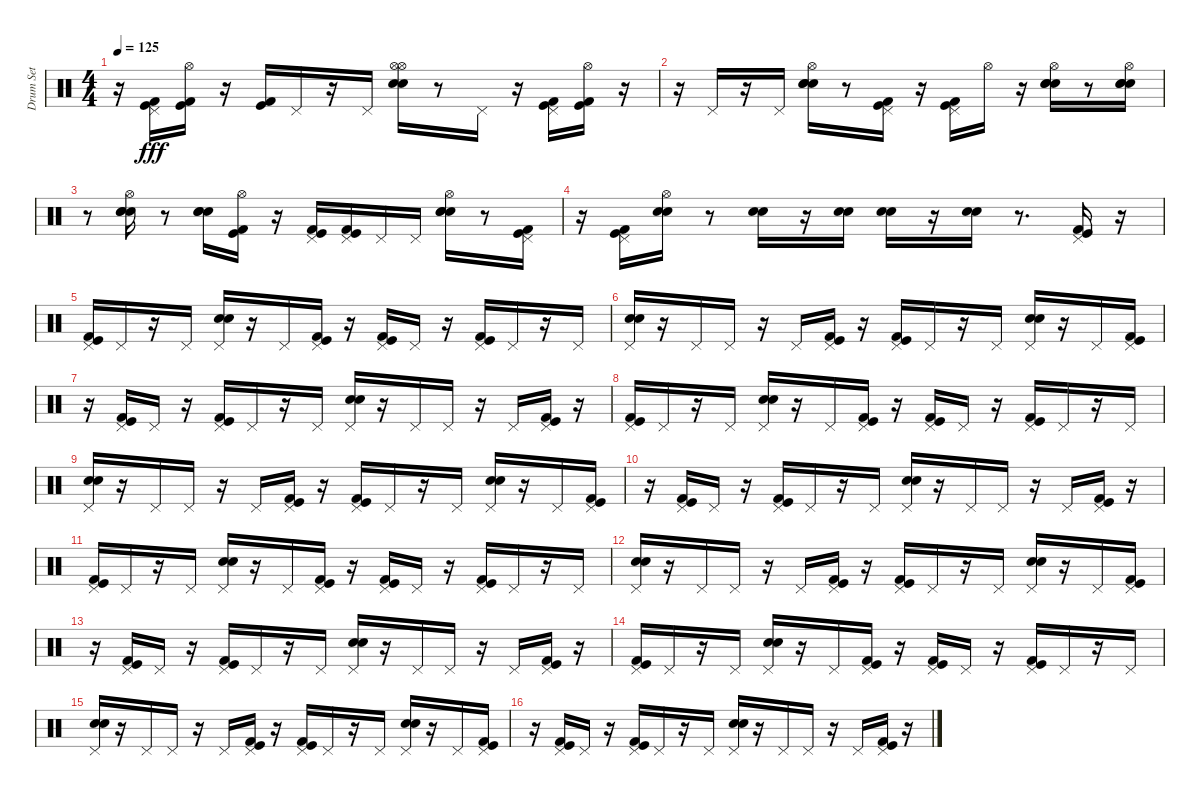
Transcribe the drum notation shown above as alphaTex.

\track ("Drum Set" "Drum Set") {instrument percussion}
\staff {score}
\articulation defaults
\ts (4 4)
\tempo 125
\clef neutral
\ks c
r.16{dy fff} ("Pedal Hi-Hat (hit)" "Kick (hit)" "Kick (hit) 2").16 ("Hi-Hat (open)" "Kick (hit) 2" "Kick (hit)").16 r.16 ("Kick (hit) 2" "Kick (hit)").16 "Pedal Hi-Hat (hit)".16 r.16 "Pedal Hi-Hat (hit)".16 ("Hi-Hat (open)" "Snare (hit) 2" "Electric Snare (hit)" "Hi-Hat (open)").16 r.8 "Pedal Hi-Hat (hit)".16 r.16 ("Kick (hit) 2" "Kick (hit)" "Pedal Hi-Hat (hit)").16 ("Hi-Hat (open)" "Kick (hit) 2" "Kick (hit)").16 r.16 |
r.16 "Pedal Hi-Hat (hit)".16 r.16 "Pedal Hi-Hat (hit)".16 ("Hi-Hat (open)" "Electric Snare (hit)" "Hand Clap (hit)" "Snare (hit) 2").16 r.8 ("Kick (hit) 2" "Kick (hit)" "Pedal Hi-Hat (hit)").16 r.16 ("Pedal Hi-Hat (hit)" "Kick (hit)" "Kick (hit) 2").16 "Hi-Hat (open)".16 r.16 ("Hi-Hat (open)" "Electric Snare (hit)" "Hand Clap (hit)" "Snare (hit) 2").16 r.8 ("Hi-Hat (open)" "Snare (hit) 2" "Hand Clap (hit)" "Electric Snare (hit)").16 |
r.8 ("Hi-Hat (open)" "Electric Snare (hit)" "Hand Clap (hit)" "Snare (hit) 2").16 r.8 ("Snare (hit) 2" "Hand Clap (hit)" "Electric Snare (hit)").16 ("Hi-Hat (open)" "Kick (hit)" "Kick (hit) 2").16 r.16 ("Pedal Hi-Hat (hit)" "Kick (hit)" "Kick (hit) 2").16 ("Pedal Hi-Hat (hit)" "Kick (hit) 2" "Kick (hit)").16 "Pedal Hi-Hat (hit)".16 "Pedal Hi-Hat (hit)".16 ("Hi-Hat (open)" "Electric Snare (hit)" "Hand Clap (hit)" "Snare (hit) 2").16 r.8 ("Kick (hit) 2" "Kick (hit)" "Pedal Hi-Hat (hit)").16 |
r.16 ("Kick (hit)" "Kick (hit) 2" "Pedal Hi-Hat (hit)").16 ("Electric Snare (hit)" "Snare (hit) 2" "Hi-Hat (open)").16 r.8 ("Snare (hit) 2" "Electric Snare (hit)").16 r.16 ("Snare (hit) 2" "Electric Snare (hit)").16 ("Electric Snare (hit)" "Snare (hit) 2").16 r.16 ("Electric Snare (hit)" "Snare (hit) 2").16 r.8{d} ("Pedal Hi-Hat (hit)" "Kick (hit) 2" "Kick (hit)").16 r.16 |
("Kick (hit)" "Kick (hit) 2" "Pedal Hi-Hat (hit)").16 "Pedal Hi-Hat (hit)".16 r.16 "Pedal Hi-Hat (hit)".16 ("Electric Snare (hit)" "Snare (hit) 2" "Pedal Hi-Hat (hit)").16 r.16 "Pedal Hi-Hat (hit)".16 ("Kick (hit)" "Kick (hit) 2" "Pedal Hi-Hat (hit)").16 r.16 ("Pedal Hi-Hat (hit)" "Kick (hit) 2" "Kick (hit)").16 "Pedal Hi-Hat (hit)".16 r.16 ("Kick (hit)" "Kick (hit) 2" "Pedal Hi-Hat (hit)").16 "Pedal Hi-Hat (hit)".16 r.16 "Pedal Hi-Hat (hit)".16 |
("Snare (hit) 2" "Electric Snare (hit)" "Pedal Hi-Hat (hit)").16 r.16 "Pedal Hi-Hat (hit)".16 "Pedal Hi-Hat (hit)".16 r.16 "Pedal Hi-Hat (hit)".16 ("Pedal Hi-Hat (hit)" "Kick (hit) 2" "Kick (hit)").16 r.16 ("Kick (hit)" "Kick (hit) 2" "Pedal Hi-Hat (hit)").16 "Pedal Hi-Hat (hit)".16 r.16 "Pedal Hi-Hat (hit)".16 ("Electric Snare (hit)" "Snare (hit) 2" "Pedal Hi-Hat (hit)").16 r.16 "Pedal Hi-Hat (hit)".16 ("Kick (hit)" "Kick (hit) 2" "Pedal Hi-Hat (hit)").16 |
r.16 ("Kick (hit) 2" "Kick (hit)" "Pedal Hi-Hat (hit)").16 "Pedal Hi-Hat (hit)".16 r.16 ("Kick (hit)" "Kick (hit) 2" "Pedal Hi-Hat (hit)").16 "Pedal Hi-Hat (hit)".16 r.16 "Pedal Hi-Hat (hit)".16 ("Snare (hit) 2" "Electric Snare (hit)" "Pedal Hi-Hat (hit)").16 r.16 "Pedal Hi-Hat (hit)".16 "Pedal Hi-Hat (hit)".16 r.16 "Pedal Hi-Hat (hit)".16 ("Pedal Hi-Hat (hit)" "Kick (hit) 2" "Kick (hit)").16 r.16 |
("Kick (hit)" "Kick (hit) 2" "Pedal Hi-Hat (hit)").16 "Pedal Hi-Hat (hit)".16 r.16 "Pedal Hi-Hat (hit)".16 ("Electric Snare (hit)" "Snare (hit) 2" "Pedal Hi-Hat (hit)").16 r.16 "Pedal Hi-Hat (hit)".16 ("Kick (hit)" "Kick (hit) 2" "Pedal Hi-Hat (hit)").16 r.16 ("Kick (hit) 2" "Kick (hit)" "Pedal Hi-Hat (hit)").16 "Pedal Hi-Hat (hit)".16 r.16 ("Kick (hit)" "Kick (hit) 2" "Pedal Hi-Hat (hit)").16 "Pedal Hi-Hat (hit)".16 r.16 "Pedal Hi-Hat (hit)".16 |
("Snare (hit) 2" "Electric Snare (hit)" "Pedal Hi-Hat (hit)").16 r.16 "Pedal Hi-Hat (hit)".16 "Pedal Hi-Hat (hit)".16 r.16 "Pedal Hi-Hat (hit)".16 ("Pedal Hi-Hat (hit)" "Kick (hit) 2" "Kick (hit)").16 r.16 ("Kick (hit)" "Kick (hit) 2" "Pedal Hi-Hat (hit)").16 "Pedal Hi-Hat (hit)".16 r.16 "Pedal Hi-Hat (hit)".16 ("Electric Snare (hit)" "Snare (hit) 2" "Pedal Hi-Hat (hit)").16 r.16 "Pedal Hi-Hat (hit)".16 ("Kick (hit)" "Kick (hit) 2" "Pedal Hi-Hat (hit)").16 |
r.16 ("Kick (hit) 2" "Kick (hit)" "Pedal Hi-Hat (hit)").16 "Pedal Hi-Hat (hit)".16 r.16 ("Kick (hit)" "Kick (hit) 2" "Pedal Hi-Hat (hit)").16 "Pedal Hi-Hat (hit)".16 r.16 "Pedal Hi-Hat (hit)".16 ("Snare (hit) 2" "Electric Snare (hit)" "Pedal Hi-Hat (hit)").16 r.16 "Pedal Hi-Hat (hit)".16 "Pedal Hi-Hat (hit)".16 r.16 "Pedal Hi-Hat (hit)".16 ("Pedal Hi-Hat (hit)" "Kick (hit) 2" "Kick (hit)").16 r.16 |
("Kick (hit)" "Kick (hit) 2" "Pedal Hi-Hat (hit)").16 "Pedal Hi-Hat (hit)".16 r.16 "Pedal Hi-Hat (hit)".16 ("Electric Snare (hit)" "Snare (hit) 2" "Pedal Hi-Hat (hit)").16 r.16 "Pedal Hi-Hat (hit)".16 ("Kick (hit)" "Kick (hit) 2" "Pedal Hi-Hat (hit)").16 r.16 ("Kick (hit) 2" "Kick (hit)" "Pedal Hi-Hat (hit)").16 "Pedal Hi-Hat (hit)".16 r.16 ("Kick (hit)" "Kick (hit) 2" "Pedal Hi-Hat (hit)").16 "Pedal Hi-Hat (hit)".16 r.16 "Pedal Hi-Hat (hit)".16 |
("Snare (hit) 2" "Electric Snare (hit)" "Pedal Hi-Hat (hit)").16 r.16 "Pedal Hi-Hat (hit)".16 "Pedal Hi-Hat (hit)".16 r.16 "Pedal Hi-Hat (hit)".16 ("Pedal Hi-Hat (hit)" "Kick (hit) 2" "Kick (hit)").16 r.16 ("Kick (hit)" "Kick (hit) 2" "Pedal Hi-Hat (hit)").16 "Pedal Hi-Hat (hit)".16 r.16 "Pedal Hi-Hat (hit)".16 ("Electric Snare (hit)" "Snare (hit) 2" "Pedal Hi-Hat (hit)").16 r.16 "Pedal Hi-Hat (hit)".16 ("Kick (hit)" "Kick (hit) 2" "Pedal Hi-Hat (hit)").16 |
r.16 ("Kick (hit) 2" "Kick (hit)" "Pedal Hi-Hat (hit)").16 "Pedal Hi-Hat (hit)".16 r.16 ("Kick (hit)" "Kick (hit) 2" "Pedal Hi-Hat (hit)").16 "Pedal Hi-Hat (hit)".16 r.16 "Pedal Hi-Hat (hit)".16 ("Snare (hit) 2" "Electric Snare (hit)" "Pedal Hi-Hat (hit)").16 r.16 "Pedal Hi-Hat (hit)".16 "Pedal Hi-Hat (hit)".16 r.16 "Pedal Hi-Hat (hit)".16 ("Pedal Hi-Hat (hit)" "Kick (hit) 2" "Kick (hit)").16 r.16 |
("Kick (hit)" "Kick (hit) 2" "Pedal Hi-Hat (hit)").16 "Pedal Hi-Hat (hit)".16 r.16 "Pedal Hi-Hat (hit)".16 ("Electric Snare (hit)" "Snare (hit) 2" "Pedal Hi-Hat (hit)").16 r.16 "Pedal Hi-Hat (hit)".16 ("Kick (hit)" "Kick (hit) 2" "Pedal Hi-Hat (hit)").16 r.16 ("Kick (hit) 2" "Kick (hit)" "Pedal Hi-Hat (hit)").16 "Pedal Hi-Hat (hit)".16 r.16 ("Kick (hit)" "Kick (hit) 2" "Pedal Hi-Hat (hit)").16 "Pedal Hi-Hat (hit)".16 r.16 "Pedal Hi-Hat (hit)".16 |
("Snare (hit) 2" "Electric Snare (hit)" "Pedal Hi-Hat (hit)").16 r.16 "Pedal Hi-Hat (hit)".16 "Pedal Hi-Hat (hit)".16 r.16 "Pedal Hi-Hat (hit)".16 ("Pedal Hi-Hat (hit)" "Kick (hit) 2" "Kick (hit)").16 r.16 ("Kick (hit)" "Kick (hit) 2" "Pedal Hi-Hat (hit)").16 "Pedal Hi-Hat (hit)".16 r.16 "Pedal Hi-Hat (hit)".16 ("Electric Snare (hit)" "Snare (hit) 2" "Pedal Hi-Hat (hit)").16 r.16 "Pedal Hi-Hat (hit)".16 ("Kick (hit)" "Kick (hit) 2" "Pedal Hi-Hat (hit)").16 |
r.16 ("Kick (hit) 2" "Kick (hit)" "Pedal Hi-Hat (hit)").16 "Pedal Hi-Hat (hit)".16 r.16 ("Kick (hit)" "Kick (hit) 2" "Pedal Hi-Hat (hit)").16 "Pedal Hi-Hat (hit)".16 r.16 "Pedal Hi-Hat (hit)".16 ("Snare (hit) 2" "Electric Snare (hit)" "Pedal Hi-Hat (hit)").16 r.16 "Pedal Hi-Hat (hit)".16 "Pedal Hi-Hat (hit)".16 r.16 "Pedal Hi-Hat (hit)".16 ("Pedal Hi-Hat (hit)" "Kick (hit) 2" "Kick (hit)").16 r.16
